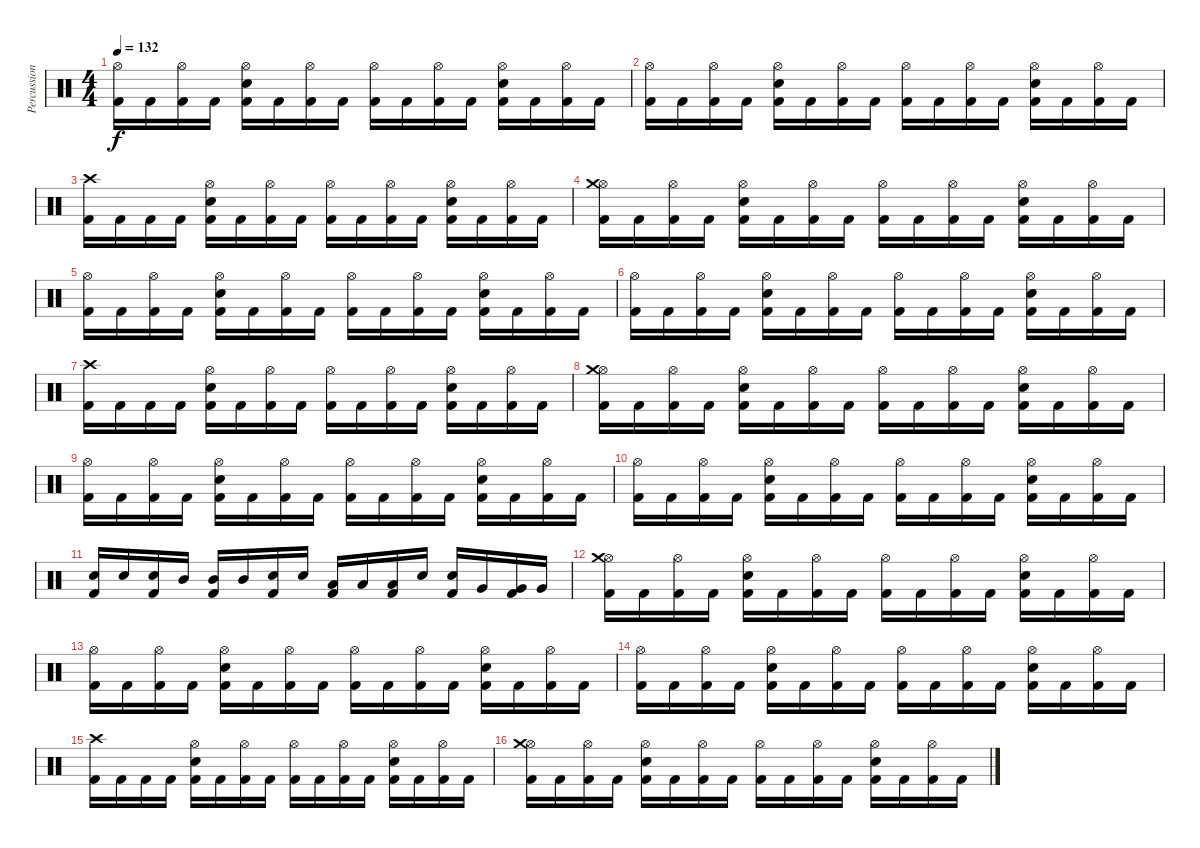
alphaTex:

\track ("Percussion" "Percussion") {instrument percussion}
\staff {score}
\articulation defaults
\ts (4 4)
\tempo 132
\clef neutral
\ks c
("Kick (hit) 2" "Hi-Hat (open)").16{dy f} "Kick (hit) 2".16 ("Kick (hit) 2" "Hi-Hat (open)").16 "Kick (hit) 2".16 ("Kick (hit) 2" "Electric Snare (hit)" "Hi-Hat (open)").16 "Kick (hit) 2".16 ("Kick (hit) 2" "Hi-Hat (open)").16 "Kick (hit) 2".16 ("Kick (hit) 2" "Hi-Hat (open)").16 "Kick (hit) 2".16 ("Kick (hit) 2" "Hi-Hat (open)").16 "Kick (hit) 2".16 ("Kick (hit) 2" "Electric Snare (hit)" "Hi-Hat (open)").16 "Kick (hit) 2".16 ("Kick (hit) 2" "Hi-Hat (open)").16 "Kick (hit) 2".16 |
("Kick (hit) 2" "Hi-Hat (open)").16 "Kick (hit) 2".16 ("Kick (hit) 2" "Hi-Hat (open)").16 "Kick (hit) 2".16 ("Kick (hit) 2" "Electric Snare (hit)" "Hi-Hat (open)").16 "Kick (hit) 2".16 ("Kick (hit) 2" "Hi-Hat (open)").16 "Kick (hit) 2".16 ("Kick (hit) 2" "Hi-Hat (open)").16 "Kick (hit) 2".16 ("Kick (hit) 2" "Hi-Hat (open)").16 "Kick (hit) 2".16 ("Kick (hit) 2" "Electric Snare (hit)" "Hi-Hat (open)").16 "Kick (hit) 2".16 ("Kick (hit) 2" "Hi-Hat (open)").16 "Kick (hit) 2".16 |
("Kick (hit) 2" "Crash high (hit)").16 "Kick (hit) 2".16 "Kick (hit) 2".16 "Kick (hit) 2".16 ("Kick (hit) 2" "Electric Snare (hit)" "Hi-Hat (open)").16 "Kick (hit) 2".16 ("Kick (hit) 2" "Hi-Hat (open)").16 "Kick (hit) 2".16 ("Kick (hit) 2" "Hi-Hat (open)").16 "Kick (hit) 2".16 ("Kick (hit) 2" "Hi-Hat (open)").16 "Kick (hit) 2".16 ("Kick (hit) 2" "Electric Snare (hit)" "Hi-Hat (open)").16 "Kick (hit) 2".16 ("Kick (hit) 2" "Hi-Hat (open)").16 "Kick (hit) 2".16 |
("Kick (hit) 2" "Hi-Hat (open)" "Crash medium (hit)").16 "Kick (hit) 2".16 ("Kick (hit) 2" "Hi-Hat (open)").16 "Kick (hit) 2".16 ("Kick (hit) 2" "Electric Snare (hit)" "Hi-Hat (open)").16 "Kick (hit) 2".16 ("Kick (hit) 2" "Hi-Hat (open)").16 "Kick (hit) 2".16 ("Kick (hit) 2" "Hi-Hat (open)").16 "Kick (hit) 2".16 ("Kick (hit) 2" "Hi-Hat (open)").16 "Kick (hit) 2".16 ("Kick (hit) 2" "Electric Snare (hit)" "Hi-Hat (open)").16 "Kick (hit) 2".16 ("Kick (hit) 2" "Hi-Hat (open)").16 "Kick (hit) 2".16 |
("Kick (hit) 2" "Hi-Hat (open)").16 "Kick (hit) 2".16 ("Kick (hit) 2" "Hi-Hat (open)").16 "Kick (hit) 2".16 ("Kick (hit) 2" "Electric Snare (hit)" "Hi-Hat (open)").16 "Kick (hit) 2".16 ("Kick (hit) 2" "Hi-Hat (open)").16 "Kick (hit) 2".16 ("Kick (hit) 2" "Hi-Hat (open)").16 "Kick (hit) 2".16 ("Kick (hit) 2" "Hi-Hat (open)").16 "Kick (hit) 2".16 ("Kick (hit) 2" "Electric Snare (hit)" "Hi-Hat (open)").16 "Kick (hit) 2".16 ("Kick (hit) 2" "Hi-Hat (open)").16 "Kick (hit) 2".16 |
("Kick (hit) 2" "Hi-Hat (open)").16 "Kick (hit) 2".16 ("Kick (hit) 2" "Hi-Hat (open)").16 "Kick (hit) 2".16 ("Kick (hit) 2" "Electric Snare (hit)" "Hi-Hat (open)").16 "Kick (hit) 2".16 ("Kick (hit) 2" "Hi-Hat (open)").16 "Kick (hit) 2".16 ("Kick (hit) 2" "Hi-Hat (open)").16 "Kick (hit) 2".16 ("Kick (hit) 2" "Hi-Hat (open)").16 "Kick (hit) 2".16 ("Kick (hit) 2" "Electric Snare (hit)" "Hi-Hat (open)").16 "Kick (hit) 2".16 ("Kick (hit) 2" "Hi-Hat (open)").16 "Kick (hit) 2".16 |
("Kick (hit) 2" "Crash high (hit)").16 "Kick (hit) 2".16 "Kick (hit) 2".16 "Kick (hit) 2".16 ("Kick (hit) 2" "Electric Snare (hit)" "Hi-Hat (open)").16 "Kick (hit) 2".16 ("Kick (hit) 2" "Hi-Hat (open)").16 "Kick (hit) 2".16 ("Kick (hit) 2" "Hi-Hat (open)").16 "Kick (hit) 2".16 ("Kick (hit) 2" "Hi-Hat (open)").16 "Kick (hit) 2".16 ("Kick (hit) 2" "Electric Snare (hit)" "Hi-Hat (open)").16 "Kick (hit) 2".16 ("Kick (hit) 2" "Hi-Hat (open)").16 "Kick (hit) 2".16 |
("Kick (hit) 2" "Hi-Hat (open)" "Crash medium (hit)").16 "Kick (hit) 2".16 ("Kick (hit) 2" "Hi-Hat (open)").16 "Kick (hit) 2".16 ("Kick (hit) 2" "Electric Snare (hit)" "Hi-Hat (open)").16 "Kick (hit) 2".16 ("Kick (hit) 2" "Hi-Hat (open)").16 "Kick (hit) 2".16 ("Kick (hit) 2" "Hi-Hat (open)").16 "Kick (hit) 2".16 ("Kick (hit) 2" "Hi-Hat (open)").16 "Kick (hit) 2".16 ("Kick (hit) 2" "Electric Snare (hit)" "Hi-Hat (open)").16 "Kick (hit) 2".16 ("Kick (hit) 2" "Hi-Hat (open)").16 "Kick (hit) 2".16 |
("Kick (hit) 2" "Hi-Hat (open)").16 "Kick (hit) 2".16 ("Kick (hit) 2" "Hi-Hat (open)").16 "Kick (hit) 2".16 ("Kick (hit) 2" "Electric Snare (hit)" "Hi-Hat (open)").16 "Kick (hit) 2".16 ("Kick (hit) 2" "Hi-Hat (open)").16 "Kick (hit) 2".16 ("Kick (hit) 2" "Hi-Hat (open)").16 "Kick (hit) 2".16 ("Kick (hit) 2" "Hi-Hat (open)").16 "Kick (hit) 2".16 ("Kick (hit) 2" "Electric Snare (hit)" "Hi-Hat (open)").16 "Kick (hit) 2".16 ("Kick (hit) 2" "Hi-Hat (open)").16 "Kick (hit) 2".16 |
("Kick (hit) 2" "Hi-Hat (open)").16 "Kick (hit) 2".16 ("Kick (hit) 2" "Hi-Hat (open)").16 "Kick (hit) 2".16 ("Kick (hit) 2" "Electric Snare (hit)" "Hi-Hat (open)").16 "Kick (hit) 2".16 ("Kick (hit) 2" "Hi-Hat (open)").16 "Kick (hit) 2".16 ("Kick (hit) 2" "Hi-Hat (open)").16 "Kick (hit) 2".16 ("Kick (hit) 2" "Hi-Hat (open)").16 "Kick (hit) 2".16 ("Kick (hit) 2" "Electric Snare (hit)" "Hi-Hat (open)").16 "Kick (hit) 2".16 ("Kick (hit) 2" "Hi-Hat (open)").16 "Kick (hit) 2".16 |
("Electric Snare (hit)" "Kick (hit) 2").16 "Electric Snare (hit)".16 ("Electric Snare (hit)" "Kick (hit) 2").16 "Mid Tom (hit)".16 ("Mid Tom (hit)" "Kick (hit) 2").16 "Mid Tom (hit)".16 ("Electric Snare (hit)" "Kick (hit) 2").16 "Electric Snare (hit)".16 ("Low Tom (hit)" "Kick (hit) 2").16 "Low Tom (hit)".16 ("Low Tom (hit)" "Kick (hit) 2").16 "Electric Snare (hit)".16 ("Electric Snare (hit)" "Kick (hit) 2").16 "Very Low Tom (hit)".16 ("Very Low Tom (hit)" "Kick (hit) 2").16 "Very Low Tom (hit)".16 |
("Kick (hit) 2" "Hi-Hat (open)" "Crash medium (hit)").16 "Kick (hit) 2".16 ("Kick (hit) 2" "Hi-Hat (open)").16 "Kick (hit) 2".16 ("Kick (hit) 2" "Electric Snare (hit)" "Hi-Hat (open)").16 "Kick (hit) 2".16 ("Kick (hit) 2" "Hi-Hat (open)").16 "Kick (hit) 2".16 ("Kick (hit) 2" "Hi-Hat (open)").16 "Kick (hit) 2".16 ("Kick (hit) 2" "Hi-Hat (open)").16 "Kick (hit) 2".16 ("Kick (hit) 2" "Electric Snare (hit)" "Hi-Hat (open)").16 "Kick (hit) 2".16 ("Kick (hit) 2" "Hi-Hat (open)").16 "Kick (hit) 2".16 |
("Kick (hit) 2" "Hi-Hat (open)").16 "Kick (hit) 2".16 ("Kick (hit) 2" "Hi-Hat (open)").16 "Kick (hit) 2".16 ("Kick (hit) 2" "Electric Snare (hit)" "Hi-Hat (open)").16 "Kick (hit) 2".16 ("Kick (hit) 2" "Hi-Hat (open)").16 "Kick (hit) 2".16 ("Kick (hit) 2" "Hi-Hat (open)").16 "Kick (hit) 2".16 ("Kick (hit) 2" "Hi-Hat (open)").16 "Kick (hit) 2".16 ("Kick (hit) 2" "Electric Snare (hit)" "Hi-Hat (open)").16 "Kick (hit) 2".16 ("Kick (hit) 2" "Hi-Hat (open)").16 "Kick (hit) 2".16 |
("Kick (hit) 2" "Hi-Hat (open)").16 "Kick (hit) 2".16 ("Kick (hit) 2" "Hi-Hat (open)").16 "Kick (hit) 2".16 ("Kick (hit) 2" "Electric Snare (hit)" "Hi-Hat (open)").16 "Kick (hit) 2".16 ("Kick (hit) 2" "Hi-Hat (open)").16 "Kick (hit) 2".16 ("Kick (hit) 2" "Hi-Hat (open)").16 "Kick (hit) 2".16 ("Kick (hit) 2" "Hi-Hat (open)").16 "Kick (hit) 2".16 ("Kick (hit) 2" "Electric Snare (hit)" "Hi-Hat (open)").16 "Kick (hit) 2".16 ("Kick (hit) 2" "Hi-Hat (open)").16 "Kick (hit) 2".16 |
("Kick (hit) 2" "Crash high (hit)").16 "Kick (hit) 2".16 "Kick (hit) 2".16 "Kick (hit) 2".16 ("Kick (hit) 2" "Electric Snare (hit)" "Hi-Hat (open)").16 "Kick (hit) 2".16 ("Kick (hit) 2" "Hi-Hat (open)").16 "Kick (hit) 2".16 ("Kick (hit) 2" "Hi-Hat (open)").16 "Kick (hit) 2".16 ("Kick (hit) 2" "Hi-Hat (open)").16 "Kick (hit) 2".16 ("Kick (hit) 2" "Electric Snare (hit)" "Hi-Hat (open)").16 "Kick (hit) 2".16 ("Kick (hit) 2" "Hi-Hat (open)").16 "Kick (hit) 2".16 |
("Kick (hit) 2" "Hi-Hat (open)" "Crash medium (hit)").16 "Kick (hit) 2".16 ("Kick (hit) 2" "Hi-Hat (open)").16 "Kick (hit) 2".16 ("Kick (hit) 2" "Electric Snare (hit)" "Hi-Hat (open)").16 "Kick (hit) 2".16 ("Kick (hit) 2" "Hi-Hat (open)").16 "Kick (hit) 2".16 ("Kick (hit) 2" "Hi-Hat (open)").16 "Kick (hit) 2".16 ("Kick (hit) 2" "Hi-Hat (open)").16 "Kick (hit) 2".16 ("Kick (hit) 2" "Electric Snare (hit)" "Hi-Hat (open)").16 "Kick (hit) 2".16 ("Kick (hit) 2" "Hi-Hat (open)").16 "Kick (hit) 2".16
